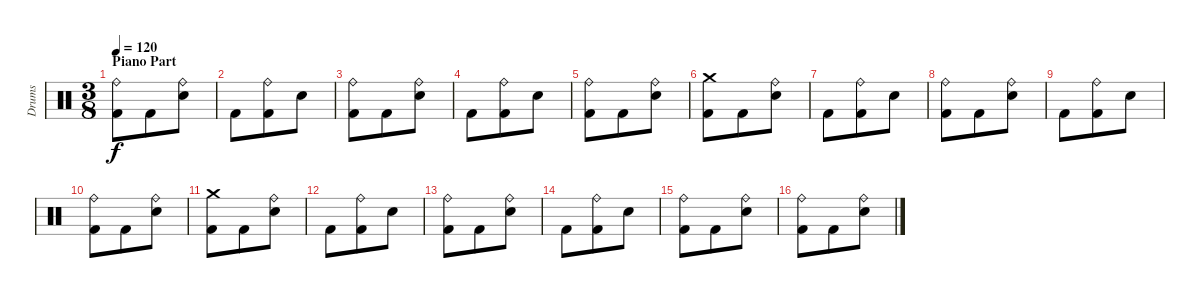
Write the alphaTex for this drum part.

\track ("Drums" "Drums") {instrument percussion}
\staff {score}
\articulation defaults
\ts (3 8)
\section ("" "Piano Part")
\tempo 120
\clef neutral
\ks c
("Ride (bell)" "Kick (hit) 2").8{dy f} "Kick (hit) 2".8 ("Ride (bell)" "Snare (hit) 2").8 |
"Kick (hit) 2".8 ("Ride (bell)" "Kick (hit) 2").8 "Snare (hit) 2".8 |
("Ride (bell)" "Kick (hit) 2").8 "Kick (hit) 2".8 ("Ride (bell)" "Snare (hit) 2").8 |
"Kick (hit) 2".8 ("Ride (bell)" "Kick (hit) 2").8 "Snare (hit) 2".8 |
("Ride (bell)" "Kick (hit) 2").8 "Kick (hit) 2".8 ("Ride (bell)" "Snare (hit) 2").8 |
("Crash medium (hit)" "Kick (hit) 2").8 "Kick (hit) 2".8 ("Ride (bell)" "Snare (hit) 2").8 |
"Kick (hit) 2".8 ("Ride (bell)" "Kick (hit) 2").8 "Snare (hit) 2".8 |
("Ride (bell)" "Kick (hit) 2").8 "Kick (hit) 2".8 ("Ride (bell)" "Snare (hit) 2").8 |
"Kick (hit) 2".8 ("Ride (bell)" "Kick (hit) 2").8 "Snare (hit) 2".8 |
("Ride (bell)" "Kick (hit) 2").8 "Kick (hit) 2".8 ("Ride (bell)" "Snare (hit) 2").8 |
("Crash medium (hit)" "Kick (hit) 2").8 "Kick (hit) 2".8 ("Ride (bell)" "Snare (hit) 2").8 |
"Kick (hit) 2".8 ("Ride (bell)" "Kick (hit) 2").8 "Snare (hit) 2".8 |
("Ride (bell)" "Kick (hit) 2").8 "Kick (hit) 2".8 ("Ride (bell)" "Snare (hit) 2").8 |
"Kick (hit) 2".8 ("Ride (bell)" "Kick (hit) 2").8 "Snare (hit) 2".8 |
("Ride (bell)" "Kick (hit) 2").8 "Kick (hit) 2".8 ("Ride (bell)" "Snare (hit) 2").8 |
("Ride (bell)" "Kick (hit) 2").8 "Kick (hit) 2".8 ("Ride (bell)" "Snare (hit) 2").8
